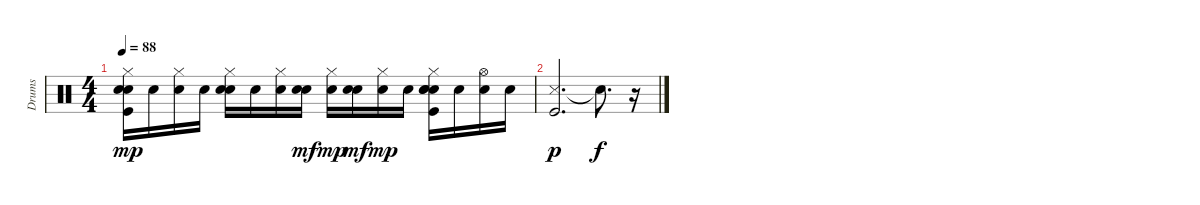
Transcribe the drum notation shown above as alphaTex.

\track ("Drums" "Drums") {instrument percussion}
\staff {score}
\articulation defaults
\ts (4 4)
\tempo 88
\clef neutral
\ks c
("Snare (hit) 2" "Snare (hit) 2" "Hi-Hat (closed)" "Kick (hit)").16{dy mp volume 7} "Snare (hit) 2".16 ("Snare (hit) 2" "Hi-Hat (closed)").16 "Snare (hit) 2".16 ("Snare (hit) 2" "Hand Clap (hit)" "Hi-Hat (closed)").16{volume 7} "Snare (hit) 2".16 ("Snare (hit) 2" "Hi-Hat (closed)").16 ("Snare (hit) 2" "Hand Clap (hit)").16{dy mf volume 7} ("Snare (hit) 2" "Hi-Hat (closed)").16{dy mp} ("Snare (hit) 2" "Hand Clap (hit)").16{dy mf} ("Snare (hit) 2" "Hi-Hat (closed)").16{dy mp volume 6} "Snare (hit) 2".16 ("Snare (hit) 2" "Snare (hit) 2" "Hand Clap (hit)" "Hi-Hat (closed)" "Kick (hit)").16 "Snare (hit) 2".16{volume 6} ("Snare (hit) 2" "Hi-Hat (open)").16 "Snare (hit) 2".16 |
("Metronome (hit)" "Kick (hit)").2{d dy p volume 6} "Snare (hit)"{t}.8{d dy f} r.16
